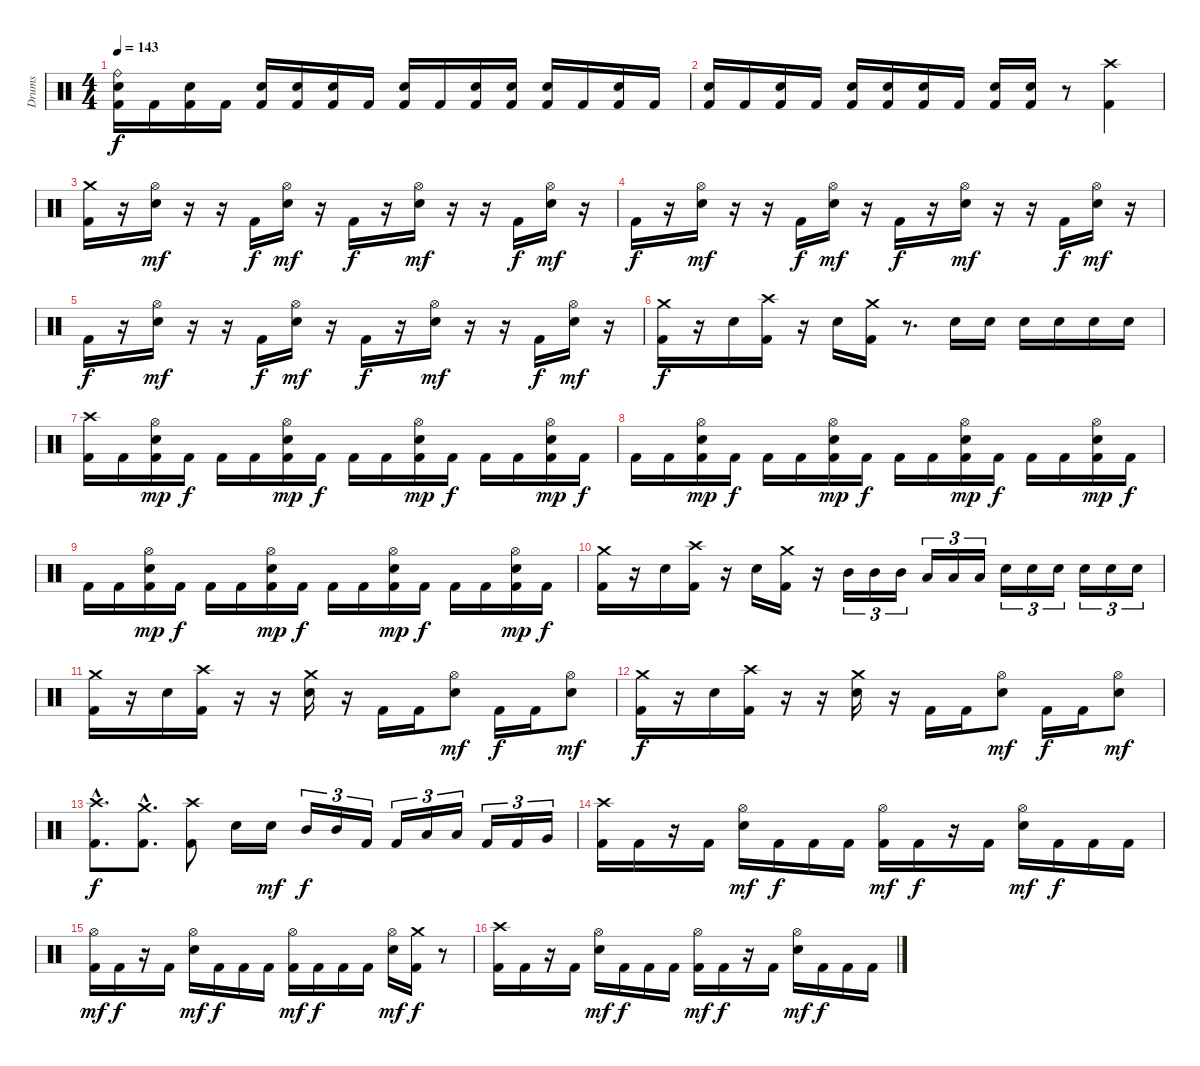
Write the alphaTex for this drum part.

\track ("Drums" "Drums") {instrument percussion}
\staff {score}
\articulation defaults
\ts (4 4)
\tempo 143
\clef neutral
\ks c
("Ride (bell)" "Electric Snare (hit)" "Kick (hit) 2").16{dy f} "Kick (hit) 2".16 ("Electric Snare (hit)" "Kick (hit) 2").16 "Kick (hit) 2".16 ("Electric Snare (hit)" "Kick (hit) 2").16 ("Electric Snare (hit)" "Kick (hit) 2").16 ("Electric Snare (hit)" "Kick (hit) 2").16 "Kick (hit) 2".16 ("Electric Snare (hit)" "Kick (hit) 2").16 "Kick (hit) 2".16 ("Electric Snare (hit)" "Kick (hit) 2").16 ("Electric Snare (hit)" "Kick (hit) 2").16 ("Electric Snare (hit)" "Kick (hit) 2").16 "Kick (hit) 2".16 ("Electric Snare (hit)" "Kick (hit) 2").16 "Kick (hit) 2".16 |
("Electric Snare (hit)" "Kick (hit) 2").16 "Kick (hit) 2".16 ("Electric Snare (hit)" "Kick (hit) 2").16 "Kick (hit) 2".16 ("Electric Snare (hit)" "Kick (hit) 2").16 ("Electric Snare (hit)" "Kick (hit) 2").16 ("Electric Snare (hit)" "Kick (hit) 2").16 "Kick (hit) 2".16 ("Electric Snare (hit)" "Kick (hit) 2").16 ("Electric Snare (hit)" "Kick (hit) 2").16 r.8 ("Crash high (hit)" "Kick (hit) 2").4 |
("Crash medium (hit)" "Kick (hit) 2").16 r.16 ("Hi-Hat (open)" "Electric Snare (hit)").16{dy mf} r.16 r.16 "Kick (hit) 2".16{dy f} ("Hi-Hat (open)" "Electric Snare (hit)").16{dy mf} r.16 "Kick (hit) 2".16{dy f} r.16 ("Hi-Hat (open)" "Electric Snare (hit)").16{dy mf} r.16 r.16 "Kick (hit) 2".16{dy f} ("Hi-Hat (open)" "Electric Snare (hit)").16{dy mf} r.16 |
"Kick (hit) 2".16{dy f} r.16 ("Hi-Hat (open)" "Electric Snare (hit)").16{dy mf} r.16 r.16 "Kick (hit) 2".16{dy f} ("Hi-Hat (open)" "Electric Snare (hit)").16{dy mf} r.16 "Kick (hit) 2".16{dy f} r.16 ("Hi-Hat (open)" "Electric Snare (hit)").16{dy mf} r.16 r.16 "Kick (hit) 2".16{dy f} ("Hi-Hat (open)" "Electric Snare (hit)").16{dy mf} r.16 |
"Kick (hit) 2".16{dy f} r.16 ("Hi-Hat (open)" "Electric Snare (hit)").16{dy mf} r.16 r.16 "Kick (hit) 2".16{dy f} ("Hi-Hat (open)" "Electric Snare (hit)").16{dy mf} r.16 "Kick (hit) 2".16{dy f} r.16 ("Hi-Hat (open)" "Electric Snare (hit)").16{dy mf} r.16 r.16 "Kick (hit) 2".16{dy f} ("Hi-Hat (open)" "Electric Snare (hit)").16{dy mf} r.16 |
("Crash medium (hit)" "Kick (hit) 2").16{dy f} r.16 "Electric Snare (hit)".16 ("Crash high (hit)" "Kick (hit) 2").16 r.16 "Electric Snare (hit)".16 ("Crash medium (hit)" "Kick (hit) 2").16 r.8{d} "Electric Snare (hit)".16 "Electric Snare (hit)".16 "Electric Snare (hit)".16 "Electric Snare (hit)".16 "Electric Snare (hit)".16 "Electric Snare (hit)".16 |
("Crash high (hit)" "Kick (hit) 2").16 "Kick (hit) 2".16 ("Hi-Hat (open)" "Electric Snare (hit)" "Kick (hit) 2").16{dy mp} "Kick (hit) 2".16{dy f} "Kick (hit) 2".16 "Kick (hit) 2".16 ("Hi-Hat (open)" "Electric Snare (hit)" "Kick (hit) 2").16{dy mp} "Kick (hit) 2".16{dy f} "Kick (hit) 2".16 "Kick (hit) 2".16 ("Hi-Hat (open)" "Electric Snare (hit)" "Kick (hit) 2").16{dy mp} "Kick (hit) 2".16{dy f} "Kick (hit) 2".16 "Kick (hit) 2".16 ("Hi-Hat (open)" "Electric Snare (hit)" "Kick (hit) 2").16{dy mp} "Kick (hit) 2".16{dy f} |
"Kick (hit) 2".16 "Kick (hit) 2".16 ("Hi-Hat (open)" "Electric Snare (hit)" "Kick (hit) 2").16{dy mp} "Kick (hit) 2".16{dy f} "Kick (hit) 2".16 "Kick (hit) 2".16 ("Hi-Hat (open)" "Electric Snare (hit)" "Kick (hit) 2").16{dy mp} "Kick (hit) 2".16{dy f} "Kick (hit) 2".16 "Kick (hit) 2".16 ("Hi-Hat (open)" "Electric Snare (hit)" "Kick (hit) 2").16{dy mp} "Kick (hit) 2".16{dy f} "Kick (hit) 2".16 "Kick (hit) 2".16 ("Hi-Hat (open)" "Electric Snare (hit)" "Kick (hit) 2").16{dy mp} "Kick (hit) 2".16{dy f} |
"Kick (hit) 2".16 "Kick (hit) 2".16 ("Hi-Hat (open)" "Electric Snare (hit)" "Kick (hit) 2").16{dy mp} "Kick (hit) 2".16{dy f} "Kick (hit) 2".16 "Kick (hit) 2".16 ("Hi-Hat (open)" "Electric Snare (hit)" "Kick (hit) 2").16{dy mp} "Kick (hit) 2".16{dy f} "Kick (hit) 2".16 "Kick (hit) 2".16 ("Hi-Hat (open)" "Electric Snare (hit)" "Kick (hit) 2").16{dy mp} "Kick (hit) 2".16{dy f} "Kick (hit) 2".16 "Kick (hit) 2".16 ("Hi-Hat (open)" "Electric Snare (hit)" "Kick (hit) 2").16{dy mp} "Kick (hit) 2".16{dy f} |
("Crash medium (hit)" "Kick (hit) 2").16 r.16 "Electric Snare (hit)".16 ("Crash high (hit)" "Kick (hit) 2").16 r.16 "Electric Snare (hit)".16 ("Crash medium (hit)" "Kick (hit) 2").16 r.16 "Mid Tom (hit)".16{tu (3 2)} "Mid Tom (hit)".16{tu (3 2)} "Mid Tom (hit)".16{tu (3 2)} "Low Tom (hit)".16{tu (3 2)} "Low Tom (hit)".16{tu (3 2)} "Low Tom (hit)".16{tu (3 2)} "Electric Snare (hit)".16{tu (3 2)} "Electric Snare (hit)".16{tu (3 2)} "Electric Snare (hit)".16{tu (3 2)} "Electric Snare (hit)".16{tu (3 2)} "Electric Snare (hit)".16{tu (3 2)} "Electric Snare (hit)".16{tu (3 2)} |
("Crash medium (hit)" "Kick (hit) 2").16 r.16 "Electric Snare (hit)".16 ("Crash high (hit)" "Kick (hit) 2").16 r.16 r.16 ("Crash medium (hit)" "Electric Snare (hit)").16 r.16 "Kick (hit) 2".16 "Kick (hit) 2".16 ("Hi-Hat (open)" "Electric Snare (hit)").8{dy mf} "Kick (hit) 2".16{dy f} "Kick (hit) 2".16 ("Hi-Hat (open)" "Electric Snare (hit)").8{dy mf} |
("Crash medium (hit)" "Kick (hit) 2").16{dy f} r.16 "Electric Snare (hit)".16 ("Crash high (hit)" "Kick (hit) 2").16 r.16 r.16 ("Crash medium (hit)" "Electric Snare (hit)").16 r.16 "Kick (hit) 2".16 "Kick (hit) 2".16 ("Hi-Hat (open)" "Electric Snare (hit)").8{dy mf} "Kick (hit) 2".16{dy f} "Kick (hit) 2".16 ("Hi-Hat (open)" "Electric Snare (hit)").8{dy mf} |
("Crash high (hit)"{hac} "Kick (hit) 2"{hac}).8{d dy f} ("Crash medium (hit)"{hac} "Kick (hit) 2"{hac}).8{d} ("Crash high (hit)" "Kick (hit) 2").8 "Electric Snare (hit)".16 "Electric Snare (hit)".16{dy mf} "Mid Tom (hit)".16{tu (3 2) dy f} "Mid Tom (hit)".16{tu (3 2)} "Kick (hit) 2".16{tu (3 2)} "Kick (hit) 2".16{tu (3 2)} "Low Tom (hit)".16{tu (3 2)} "Low Tom (hit)".16{tu (3 2)} "Kick (hit) 2".16{tu (3 2)} "Kick (hit) 2".16{tu (3 2)} "Very Low Tom (hit)".16{tu (3 2)} |
("Crash high (hit)" "Kick (hit) 2").16 "Kick (hit) 2".16 r.16 "Kick (hit) 2".16 ("Hi-Hat (open)" "Electric Snare (hit)").16{dy mf} "Kick (hit) 2".16{dy f} "Kick (hit) 2".16 "Kick (hit) 2".16 ("Hi-Hat (open)" "Kick (hit) 2").16{dy mf} "Kick (hit) 2".16{dy f} r.16 "Kick (hit) 2".16 ("Hi-Hat (open)" "Electric Snare (hit)").16{dy mf} "Kick (hit) 2".16{dy f} "Kick (hit) 2".16 "Kick (hit) 2".16 |
("Hi-Hat (open)" "Kick (hit) 2").16{dy mf} "Kick (hit) 2".16{dy f} r.16 "Kick (hit) 2".16 ("Hi-Hat (open)" "Electric Snare (hit)").16{dy mf} "Kick (hit) 2".16{dy f} "Kick (hit) 2".16 "Kick (hit) 2".16 ("Hi-Hat (open)" "Kick (hit) 2").16{dy mf} "Kick (hit) 2".16{dy f} "Kick (hit) 2".16 "Kick (hit) 2".16 ("Hi-Hat (open)" "Electric Snare (hit)").16{dy mf} ("Crash medium (hit)" "Kick (hit) 2").16{dy f} r.8 |
("Crash high (hit)" "Kick (hit) 2").16 "Kick (hit) 2".16 r.16 "Kick (hit) 2".16 ("Hi-Hat (open)" "Electric Snare (hit)").16{dy mf} "Kick (hit) 2".16{dy f} "Kick (hit) 2".16 "Kick (hit) 2".16 ("Hi-Hat (open)" "Kick (hit) 2").16{dy mf} "Kick (hit) 2".16{dy f} r.16 "Kick (hit) 2".16 ("Hi-Hat (open)" "Electric Snare (hit)").16{dy mf} "Kick (hit) 2".16{dy f} "Kick (hit) 2".16 "Kick (hit) 2".16
